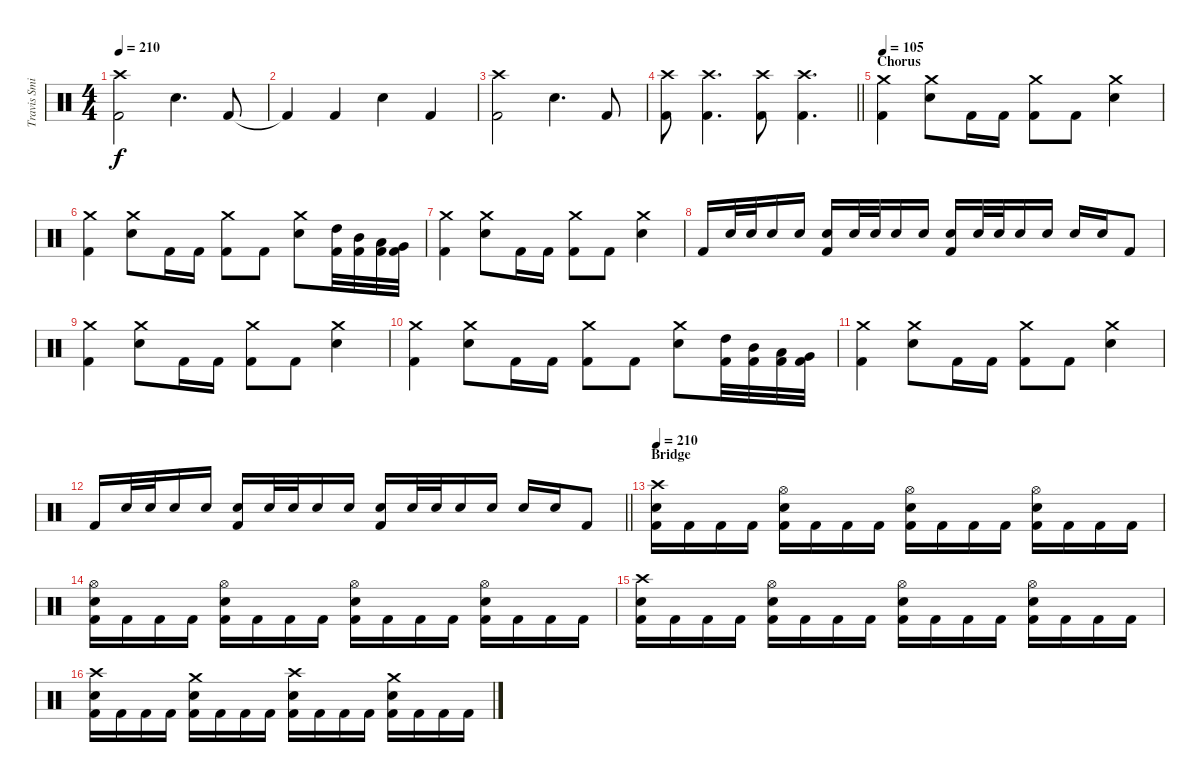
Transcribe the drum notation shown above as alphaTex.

\track ("Travis Smith" "Travis Smi") {instrument percussion}
\staff {score}
\articulation defaults
\ts (4 4)
\tempo 210
\clef neutral
\ks c
("Crash high (hit)" "Kick (hit) 2").2{dy f} "Snare (hit) 2".4{d} "Kick (hit) 2".8 |
"Kick (hit) 2"{t}.4 "Kick (hit) 2".4 "Snare (hit) 2".4 "Kick (hit) 2".4 |
("Crash high (hit)" "Kick (hit) 2").2 "Snare (hit) 2".4{d} "Kick (hit) 2".8 |
\barLineRight lightlight
("Crash high (hit)" "Kick (hit) 2").8 ("Crash high (hit)" "Kick (hit) 2").4{d} ("Crash high (hit)" "Kick (hit) 2").8 ("Crash high (hit)" "Kick (hit) 2").4{d} |
\section ("" "Chorus")
\tempo 105
("Crash medium (hit)" "Kick (hit) 2").4 ("Crash medium (hit)" "Snare (hit) 2").8 "Kick (hit) 2".16 "Kick (hit) 2".16 ("Crash medium (hit)" "Kick (hit) 2").8 "Kick (hit) 2".8 ("Crash medium (hit)" "Snare (hit) 2").4 |
("Crash medium (hit)" "Kick (hit) 2").4 ("Crash medium (hit)" "Snare (hit) 2").8 "Kick (hit) 2".16 "Kick (hit) 2".16 ("Crash medium (hit)" "Kick (hit) 2").8 "Kick (hit) 2".8 ("Crash medium (hit)" "Snare (hit) 2").8 ("High Tom (hit)" "Kick (hit) 2").32 ("Mid Tom (hit)" "Kick (hit) 2").32 ("Low Tom (hit)" "Kick (hit) 2").32 ("Very Low Tom (hit)" "Kick (hit) 2").32 |
("Crash medium (hit)" "Kick (hit) 2").4 ("Crash medium (hit)" "Snare (hit) 2").8 "Kick (hit) 2".16 "Kick (hit) 2".16 ("Crash medium (hit)" "Kick (hit) 2").8 "Kick (hit) 2".8 ("Crash medium (hit)" "Snare (hit) 2").4 |
"Kick (hit) 2".16 "Snare (hit) 2".32 "Snare (hit) 2".32 "Snare (hit) 2".16 "Snare (hit) 2".16 ("Snare (hit) 2" "Kick (hit) 2").16 "Snare (hit) 2".32 "Snare (hit) 2".32 "Snare (hit) 2".16 "Snare (hit) 2".16 ("Snare (hit) 2" "Kick (hit) 2").16 "Snare (hit) 2".32 "Snare (hit) 2".32 "Snare (hit) 2".16 "Snare (hit) 2".16 "Snare (hit) 2".16 "Snare (hit) 2".16 "Kick (hit) 2".8 |
("Crash medium (hit)" "Kick (hit) 2").4 ("Crash medium (hit)" "Snare (hit) 2").8 "Kick (hit) 2".16 "Kick (hit) 2".16 ("Crash medium (hit)" "Kick (hit) 2").8 "Kick (hit) 2".8 ("Crash medium (hit)" "Snare (hit) 2").4 |
("Crash medium (hit)" "Kick (hit) 2").4 ("Crash medium (hit)" "Snare (hit) 2").8 "Kick (hit) 2".16 "Kick (hit) 2".16 ("Crash medium (hit)" "Kick (hit) 2").8 "Kick (hit) 2".8 ("Crash medium (hit)" "Snare (hit) 2").8 ("High Tom (hit)" "Kick (hit) 2").32 ("Mid Tom (hit)" "Kick (hit) 2").32 ("Low Tom (hit)" "Kick (hit) 2").32 ("Very Low Tom (hit)" "Kick (hit) 2").32 |
("Crash medium (hit)" "Kick (hit) 2").4 ("Crash medium (hit)" "Snare (hit) 2").8 "Kick (hit) 2".16 "Kick (hit) 2".16 ("Crash medium (hit)" "Kick (hit) 2").8 "Kick (hit) 2".8 ("Crash medium (hit)" "Snare (hit) 2").4 |
\barLineRight lightlight "Kick (hit) 2".16 "Snare (hit) 2".32 "Snare (hit) 2".32 "Snare (hit) 2".16 "Snare (hit) 2".16
("Snare (hit) 2" "Kick (hit) 2").16 "Snare (hit) 2".32 "Snare (hit) 2".32 "Snare (hit) 2".16 "Snare (hit) 2".16 ("Snare (hit) 2" "Kick (hit) 2").16 "Snare (hit) 2".32 "Snare (hit) 2".32 "Snare (hit) 2".16 "Snare (hit) 2".16 "Snare (hit) 2".16 "Snare (hit) 2".16 "Kick (hit) 2".8 |
\section ("" "Bridge")
\tempo 210
("Crash high (hit)" "Snare (hit) 2" "Kick (hit) 2").16 "Kick (hit) 2".16 "Kick (hit) 2".16 "Kick (hit) 2".16 ("Hi-Hat (open)" "Snare (hit) 2" "Kick (hit) 2").16 "Kick (hit) 2".16 "Kick (hit) 2".16 "Kick (hit) 2".16 ("Hi-Hat (open)" "Snare (hit) 2" "Kick (hit) 2").16 "Kick (hit) 2".16 "Kick (hit) 2".16 "Kick (hit) 2".16 ("Hi-Hat (open)" "Snare (hit) 2" "Kick (hit) 2").16 "Kick (hit) 2".16 "Kick (hit) 2".16 "Kick (hit) 2".16 |
("Hi-Hat (open)" "Snare (hit) 2" "Kick (hit) 2").16 "Kick (hit) 2".16 "Kick (hit) 2".16 "Kick (hit) 2".16 ("Hi-Hat (open)" "Snare (hit) 2" "Kick (hit) 2").16 "Kick (hit) 2".16 "Kick (hit) 2".16 "Kick (hit) 2".16 ("Hi-Hat (open)" "Snare (hit) 2" "Kick (hit) 2").16 "Kick (hit) 2".16 "Kick (hit) 2".16 "Kick (hit) 2".16 ("Hi-Hat (open)" "Snare (hit) 2" "Kick (hit) 2").16 "Kick (hit) 2".16 "Kick (hit) 2".16 "Kick (hit) 2".16 |
("Crash high (hit)" "Snare (hit) 2" "Kick (hit) 2").16 "Kick (hit) 2".16 "Kick (hit) 2".16 "Kick (hit) 2".16 ("Hi-Hat (open)" "Snare (hit) 2" "Kick (hit) 2").16 "Kick (hit) 2".16 "Kick (hit) 2".16 "Kick (hit) 2".16 ("Hi-Hat (open)" "Snare (hit) 2" "Kick (hit) 2").16 "Kick (hit) 2".16 "Kick (hit) 2".16 "Kick (hit) 2".16 ("Hi-Hat (open)" "Snare (hit) 2" "Kick (hit) 2").16 "Kick (hit) 2".16 "Kick (hit) 2".16 "Kick (hit) 2".16 |
("Crash high (hit)" "Snare (hit) 2" "Kick (hit) 2").16 "Kick (hit) 2".16 "Kick (hit) 2".16 "Kick (hit) 2".16 ("Crash medium (hit)" "Snare (hit) 2" "Kick (hit) 2").16 "Kick (hit) 2".16 "Kick (hit) 2".16 "Kick (hit) 2".16 ("Crash high (hit)" "Snare (hit) 2" "Kick (hit) 2").16 "Kick (hit) 2".16 "Kick (hit) 2".16 "Kick (hit) 2".16 ("Crash medium (hit)" "Snare (hit) 2" "Kick (hit) 2").16 "Kick (hit) 2".16 "Kick (hit) 2".16 "Kick (hit) 2".16
